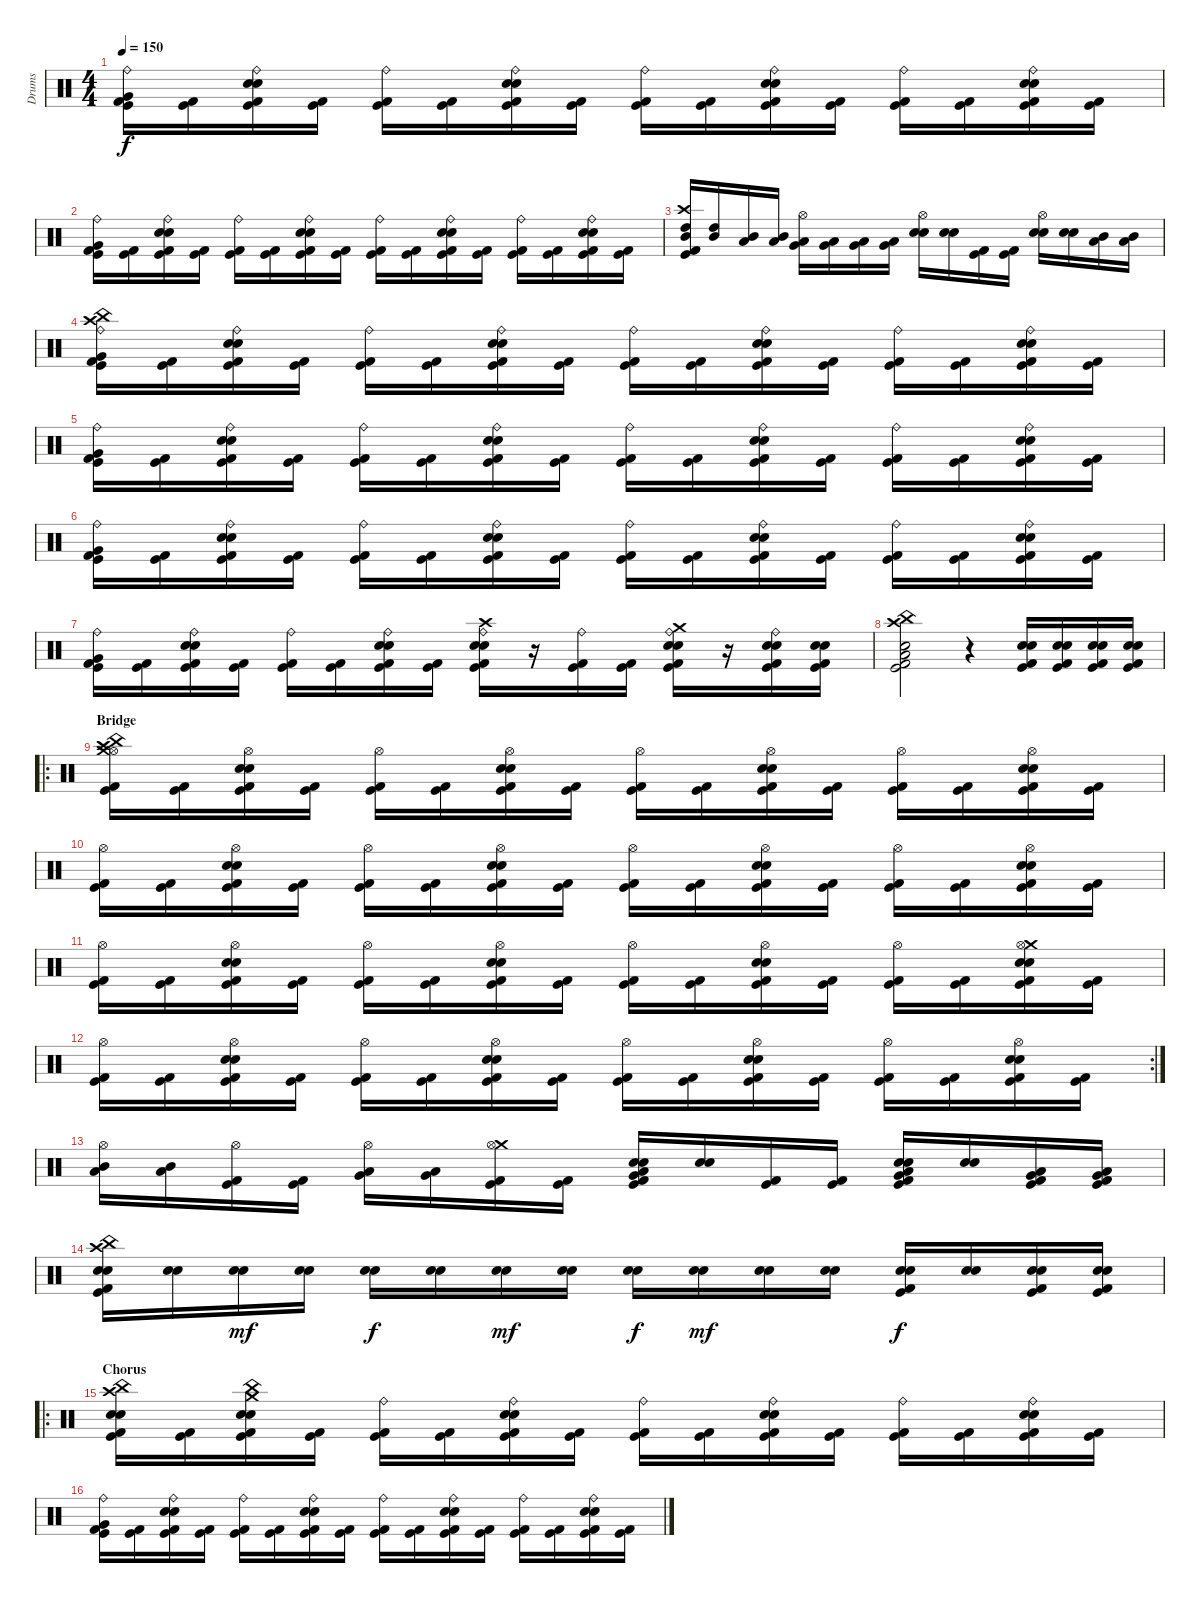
\track ("Drums" "Drums") {instrument percussion}
\staff {score}
\articulation defaults
\ts (4 4)
\tempo 150
\clef neutral
\ks c
("Ride (bell)" "Very Low Tom (hit)" "Kick (hit) 2" "Kick (hit)").16{dy f} ("Kick (hit) 2" "Kick (hit)").16 ("Ride (bell)" "Snare (hit) 2" "Electric Snare (hit)" "Kick (hit) 2" "Kick (hit)").16 ("Kick (hit) 2" "Kick (hit)").16 ("Ride (bell)" "Kick (hit) 2" "Kick (hit)").16 ("Kick (hit) 2" "Kick (hit)").16 ("Ride (bell)" "Snare (hit) 2" "Electric Snare (hit)" "Kick (hit)" "Kick (hit) 2").16 ("Kick (hit) 2" "Kick (hit)").16 ("Ride (bell)" "Kick (hit) 2" "Kick (hit)").16 ("Kick (hit) 2" "Kick (hit)").16 ("Ride (bell)" "Snare (hit) 2" "Electric Snare (hit)" "Kick (hit) 2" "Kick (hit)").16 ("Kick (hit) 2" "Kick (hit)").16 ("Ride (bell)" "Kick (hit) 2" "Kick (hit)").16 ("Kick (hit) 2" "Kick (hit)").16 ("Ride (bell)" "Snare (hit) 2" "Electric Snare (hit)" "Kick (hit)" "Kick (hit) 2").16 ("Kick (hit) 2" "Kick (hit)").16 |
("Ride (bell)" "Very Low Tom (hit)" "Kick (hit) 2" "Kick (hit)").16 ("Kick (hit) 2" "Kick (hit)").16 ("Ride (bell)" "Snare (hit) 2" "Electric Snare (hit)" "Kick (hit) 2" "Kick (hit)").16 ("Kick (hit) 2" "Kick (hit)").16 ("Ride (bell)" "Kick (hit) 2" "Kick (hit)").16 ("Kick (hit) 2" "Kick (hit)").16 ("Ride (bell)" "Snare (hit) 2" "Electric Snare (hit)" "Kick (hit)" "Kick (hit) 2").16 ("Kick (hit) 2" "Kick (hit)").16 ("Ride (bell)" "Kick (hit) 2" "Kick (hit)").16 ("Kick (hit) 2" "Kick (hit)").16 ("Ride (bell)" "Snare (hit) 2" "Electric Snare (hit)" "Kick (hit) 2" "Kick (hit)").16 ("Kick (hit) 2" "Kick (hit)").16 ("Ride (bell)" "Kick (hit) 2" "Kick (hit)").16 ("Kick (hit) 2" "Kick (hit)").16 ("Ride (bell)" "Snare (hit) 2" "Electric Snare (hit)" "Kick (hit)" "Kick (hit) 2").16 ("Kick (hit) 2" "Kick (hit)").16 |
("Crash high (hit)" "Mid Tom (hit)" "High Tom (hit)" "Kick (hit) 2" "Kick (hit)").16 ("Mid Tom (hit)" "High Tom (hit)").16 ("Low Tom (hit)" "Mid Tom (hit)").16 ("Low Tom (hit)" "Mid Tom (hit)").16 ("Hi-Hat (open)" "Very Low Tom (hit)" "Low Tom (hit)").16 ("Very Low Tom (hit)" "Low Tom (hit)").16 ("Very Low Tom (hit)" "Low Floor Tom (hit)").16 ("Very Low Tom (hit)" "Low Floor Tom (hit)").16 ("Hi-Hat (open)" "Snare (hit) 2" "Electric Snare (hit)").16 ("Snare (hit) 2" "Electric Snare (hit)").16 ("Kick (hit)" "Kick (hit) 2").16 ("Kick (hit)" "Kick (hit) 2").16 ("Hi-Hat (open)" "Snare (hit) 2" "Electric Snare (hit)").16 ("Snare (hit) 2" "Electric Snare (hit)").16 ("Mid Tom (hit)" "Low Tom (hit)").16 ("Mid Tom (hit)" "Low Tom (hit)").16 |
("Crash high (hit)" "Ride (bell)" "China (hit)" "Very Low Tom (hit)" "Kick (hit) 2" "Kick (hit)").16 ("Kick (hit) 2" "Kick (hit)").16 ("Ride (bell)" "Snare (hit) 2" "Electric Snare (hit)" "Kick (hit) 2" "Kick (hit)").16 ("Kick (hit) 2" "Kick (hit)").16 ("Ride (bell)" "Kick (hit) 2" "Kick (hit)").16 ("Kick (hit) 2" "Kick (hit)").16 ("Ride (bell)" "Snare (hit) 2" "Electric Snare (hit)" "Kick (hit)" "Kick (hit) 2").16 ("Kick (hit) 2" "Kick (hit)").16 ("Ride (bell)" "Kick (hit) 2" "Kick (hit)").16 ("Kick (hit) 2" "Kick (hit)").16 ("Ride (bell)" "Snare (hit) 2" "Electric Snare (hit)" "Kick (hit) 2" "Kick (hit)").16 ("Kick (hit) 2" "Kick (hit)").16 ("Ride (bell)" "Kick (hit) 2" "Kick (hit)").16 ("Kick (hit) 2" "Kick (hit)").16 ("Ride (bell)" "Snare (hit) 2" "Electric Snare (hit)" "Kick (hit)" "Kick (hit) 2").16 ("Kick (hit) 2" "Kick (hit)").16 |
("Ride (bell)" "Very Low Tom (hit)" "Kick (hit) 2" "Kick (hit)").16 ("Kick (hit) 2" "Kick (hit)").16 ("Ride (bell)" "Snare (hit) 2" "Electric Snare (hit)" "Kick (hit) 2" "Kick (hit)").16 ("Kick (hit) 2" "Kick (hit)").16 ("Ride (bell)" "Kick (hit) 2" "Kick (hit)").16 ("Kick (hit) 2" "Kick (hit)").16 ("Ride (bell)" "Snare (hit) 2" "Electric Snare (hit)" "Kick (hit)" "Kick (hit) 2").16 ("Kick (hit) 2" "Kick (hit)").16 ("Ride (bell)" "Kick (hit) 2" "Kick (hit)").16 ("Kick (hit) 2" "Kick (hit)").16 ("Ride (bell)" "Snare (hit) 2" "Electric Snare (hit)" "Kick (hit) 2" "Kick (hit)").16 ("Kick (hit) 2" "Kick (hit)").16 ("Ride (bell)" "Kick (hit) 2" "Kick (hit)").16 ("Kick (hit) 2" "Kick (hit)").16 ("Ride (bell)" "Snare (hit) 2" "Electric Snare (hit)" "Kick (hit)" "Kick (hit) 2").16 ("Kick (hit) 2" "Kick (hit)").16 |
("Ride (bell)" "Very Low Tom (hit)" "Kick (hit) 2" "Kick (hit)").16 ("Kick (hit) 2" "Kick (hit)").16 ("Ride (bell)" "Snare (hit) 2" "Electric Snare (hit)" "Kick (hit) 2" "Kick (hit)").16 ("Kick (hit) 2" "Kick (hit)").16 ("Ride (bell)" "Kick (hit) 2" "Kick (hit)").16 ("Kick (hit) 2" "Kick (hit)").16 ("Ride (bell)" "Snare (hit) 2" "Electric Snare (hit)" "Kick (hit)" "Kick (hit) 2").16 ("Kick (hit) 2" "Kick (hit)").16 ("Ride (bell)" "Kick (hit) 2" "Kick (hit)").16 ("Kick (hit) 2" "Kick (hit)").16 ("Ride (bell)" "Snare (hit) 2" "Electric Snare (hit)" "Kick (hit) 2" "Kick (hit)").16 ("Kick (hit) 2" "Kick (hit)").16 ("Ride (bell)" "Kick (hit) 2" "Kick (hit)").16 ("Kick (hit) 2" "Kick (hit)").16 ("Ride (bell)" "Snare (hit) 2" "Electric Snare (hit)" "Kick (hit)" "Kick (hit) 2").16 ("Kick (hit) 2" "Kick (hit)").16 |
("Ride (bell)" "Very Low Tom (hit)" "Kick (hit) 2" "Kick (hit)").16 ("Kick (hit) 2" "Kick (hit)").16 ("Ride (bell)" "Snare (hit) 2" "Electric Snare (hit)" "Kick (hit) 2" "Kick (hit)").16 ("Kick (hit) 2" "Kick (hit)").16 ("Ride (bell)" "Kick (hit) 2" "Kick (hit)").16 ("Kick (hit) 2" "Kick (hit)").16 ("Ride (bell)" "Snare (hit) 2" "Electric Snare (hit)" "Kick (hit)" "Kick (hit) 2").16 ("Kick (hit) 2" "Kick (hit)").16 ("Crash high (hit)" "Ride (bell)" "Electric Snare (hit)" "Snare (hit) 2" "Kick (hit) 2" "Kick (hit)").16 r.16 ("Ride (bell)" "Kick (hit) 2" "Kick (hit)").16 ("Kick (hit) 2" "Kick (hit)").16 ("Crash medium (hit)" "Ride (bell)" "Snare (hit) 2" "Electric Snare (hit)" "Kick (hit) 2" "Kick (hit)").16 r.16 ("Ride (bell)" "Snare (hit) 2" "Electric Snare (hit)" "Kick (hit)" "Kick (hit) 2").16 ("Snare (hit) 2" "Electric Snare (hit)" "Kick (hit) 2" "Kick (hit)").16 |
("Crash high (hit)" "China (hit)" "Electric Snare (hit)" "Low Tom (hit)" "Kick (hit)" "Kick (hit) 2").2 r.4 ("Electric Snare (hit)" "Snare (hit) 2" "Kick (hit) 2" "Kick (hit)").16 ("Electric Snare (hit)" "Snare (hit) 2" "Kick (hit) 2" "Kick (hit)").16 ("Electric Snare (hit)" "Snare (hit) 2" "Kick (hit) 2" "Kick (hit)").16 ("Electric Snare (hit)" "Snare (hit) 2" "Kick (hit) 2" "Kick (hit)").16 |
\ro
\section ("" "Bridge")
("China (hit)" "Hi-Hat (open)" "Crash high (hit)" "Crash medium (hit)" "Kick (hit) 2" "Kick (hit)").16 ("Kick (hit) 2" "Kick (hit)").16 ("Hi-Hat (open)" "Snare (hit) 2" "Electric Snare (hit)" "Kick (hit) 2" "Kick (hit)").16 ("Kick (hit) 2" "Kick (hit)").16 ("Hi-Hat (open)" "Kick (hit) 2" "Kick (hit)").16 ("Kick (hit) 2" "Kick (hit)").16 ("Hi-Hat (open)" "Snare (hit) 2" "Electric Snare (hit)" "Kick (hit)" "Kick (hit) 2").16 ("Kick (hit) 2" "Kick (hit)").16 ("Hi-Hat (open)" "Kick (hit) 2" "Kick (hit)").16 ("Kick (hit) 2" "Kick (hit)").16 ("Hi-Hat (open)" "Snare (hit) 2" "Electric Snare (hit)" "Kick (hit) 2" "Kick (hit)").16 ("Kick (hit) 2" "Kick (hit)").16 ("Hi-Hat (open)" "Kick (hit) 2" "Kick (hit)").16 ("Kick (hit) 2" "Kick (hit)").16 ("Hi-Hat (open)" "Snare (hit) 2" "Electric Snare (hit)" "Kick (hit)" "Kick (hit) 2").16 ("Kick (hit) 2" "Kick (hit)").16 |
("Hi-Hat (open)" "Kick (hit) 2" "Kick (hit)").16 ("Kick (hit) 2" "Kick (hit)").16 ("Hi-Hat (open)" "Snare (hit) 2" "Electric Snare (hit)" "Kick (hit) 2" "Kick (hit)").16 ("Kick (hit) 2" "Kick (hit)").16 ("Hi-Hat (open)" "Kick (hit) 2" "Kick (hit)").16 ("Kick (hit) 2" "Kick (hit)").16 ("Hi-Hat (open)" "Snare (hit) 2" "Electric Snare (hit)" "Kick (hit)" "Kick (hit) 2").16 ("Kick (hit) 2" "Kick (hit)").16 ("Hi-Hat (open)" "Kick (hit) 2" "Kick (hit)").16 ("Kick (hit) 2" "Kick (hit)").16 ("Hi-Hat (open)" "Snare (hit) 2" "Electric Snare (hit)" "Kick (hit) 2" "Kick (hit)").16 ("Kick (hit) 2" "Kick (hit)").16 ("Hi-Hat (open)" "Kick (hit) 2" "Kick (hit)").16 ("Kick (hit) 2" "Kick (hit)").16 ("Hi-Hat (open)" "Snare (hit) 2" "Electric Snare (hit)" "Kick (hit)" "Kick (hit) 2").16 ("Kick (hit) 2" "Kick (hit)").16 |
("Hi-Hat (open)" "Kick (hit) 2" "Kick (hit)").16 ("Kick (hit) 2" "Kick (hit)").16 ("Hi-Hat (open)" "Snare (hit) 2" "Electric Snare (hit)" "Kick (hit) 2" "Kick (hit)").16 ("Kick (hit) 2" "Kick (hit)").16 ("Hi-Hat (open)" "Kick (hit) 2" "Kick (hit)").16 ("Kick (hit) 2" "Kick (hit)").16 ("Hi-Hat (open)" "Snare (hit) 2" "Electric Snare (hit)" "Kick (hit)" "Kick (hit) 2").16 ("Kick (hit) 2" "Kick (hit)").16 ("Hi-Hat (open)" "Kick (hit) 2" "Kick (hit)").16 ("Kick (hit) 2" "Kick (hit)").16 ("Hi-Hat (open)" "Snare (hit) 2" "Electric Snare (hit)" "Kick (hit) 2" "Kick (hit)").16 ("Kick (hit) 2" "Kick (hit)").16 ("Hi-Hat (open)" "Kick (hit) 2" "Kick (hit)").16 ("Kick (hit) 2" "Kick (hit)").16 ("Crash medium (hit)" "Hi-Hat (open)" "Snare (hit) 2" "Electric Snare (hit)" "Kick (hit)" "Kick (hit) 2").16 ("Kick (hit) 2" "Kick (hit)").16 |
\rc 2
("Hi-Hat (open)" "Kick (hit) 2" "Kick (hit)").16 ("Kick (hit) 2" "Kick (hit)").16 ("Hi-Hat (open)" "Snare (hit) 2" "Electric Snare (hit)" "Kick (hit) 2" "Kick (hit)").16 ("Kick (hit) 2" "Kick (hit)").16 ("Hi-Hat (open)" "Kick (hit) 2" "Kick (hit)").16 ("Kick (hit) 2" "Kick (hit)").16 ("Hi-Hat (open)" "Snare (hit) 2" "Electric Snare (hit)" "Kick (hit)" "Kick (hit) 2").16 ("Kick (hit) 2" "Kick (hit)").16 ("Hi-Hat (open)" "Kick (hit) 2" "Kick (hit)").16 ("Kick (hit) 2" "Kick (hit)").16 ("Hi-Hat (open)" "Snare (hit) 2" "Electric Snare (hit)" "Kick (hit) 2" "Kick (hit)").16 ("Kick (hit) 2" "Kick (hit)").16 ("Hi-Hat (open)" "Kick (hit) 2" "Kick (hit)").16 ("Kick (hit) 2" "Kick (hit)").16 ("Hi-Hat (open)" "Snare (hit) 2" "Electric Snare (hit)" "Kick (hit)" "Kick (hit) 2").16 ("Kick (hit) 2" "Kick (hit)").16 |
("Hi-Hat (open)" "Low Tom (hit)" "Mid Tom (hit)").16 ("Low Tom (hit)" "Mid Tom (hit)").16 ("Hi-Hat (open)" "Kick (hit) 2" "Kick (hit)").16 ("Kick (hit) 2" "Kick (hit)").16 ("Hi-Hat (open)" "Very Low Tom (hit)" "Low Tom (hit)").16 ("Low Tom (hit)" "Very Low Tom (hit)").16 ("Crash medium (hit)" "Hi-Hat (open)" "Kick (hit) 2" "Kick (hit)").16 ("Kick (hit) 2" "Kick (hit)").16 ("Low Floor Tom (hit)" "Very Low Tom (hit)" "Electric Snare (hit)" "Snare (hit) 2" "Kick (hit) 2" "Kick (hit)").16 ("Electric Snare (hit)" "Snare (hit) 2").16 ("Kick (hit) 2" "Kick (hit)").16 ("Kick (hit) 2" "Kick (hit)").16 ("Low Tom (hit)" "Very Low Tom (hit)" "Snare (hit) 2" "Electric Snare (hit)" "Kick (hit)" "Kick (hit) 2").16 ("Electric Snare (hit)" "Snare (hit) 2").16 ("Very Low Tom (hit)" "Low Tom (hit)" "Kick (hit) 2" "Kick (hit)").16 ("Very Low Tom (hit)" "Low Tom (hit)" "Kick (hit) 2" "Kick (hit)").16 |
("China (hit)" "Crash high (hit)" "Electric Snare (hit)" "Snare (hit) 2" "Kick (hit) 2" "Kick (hit)").16 ("Electric Snare (hit)" "Snare (hit) 2").16 ("Electric Snare (hit)" "Snare (hit) 2").16{dy mf} ("Electric Snare (hit)" "Snare (hit) 2").16 ("Electric Snare (hit)" "Snare (hit) 2").16{dy f} ("Electric Snare (hit)" "Snare (hit) 2").16 ("Electric Snare (hit)" "Snare (hit) 2").16{dy mf} ("Electric Snare (hit)" "Snare (hit) 2").16 ("Electric Snare (hit)" "Snare (hit) 2").16{dy f} ("Electric Snare (hit)" "Snare (hit) 2").16{dy mf} ("Electric Snare (hit)" "Snare (hit) 2").16 ("Electric Snare (hit)" "Snare (hit) 2").16 ("Electric Snare (hit)" "Snare (hit) 2" "Kick (hit)" "Kick (hit) 2").16{dy f} ("Electric Snare (hit)" "Snare (hit) 2").16 ("Electric Snare (hit)" "Snare (hit) 2" "Kick (hit)" "Kick (hit) 2").16 ("Electric Snare (hit)" "Snare (hit) 2" "Kick (hit)" "Kick (hit) 2").16 |
\ro
\section ("" "Chorus")
("Crash high (hit)" "China (hit)" "Electric Snare (hit)" "Snare (hit) 2" "Kick (hit) 2" "Kick (hit)").16 ("Kick (hit) 2" "Kick (hit)").16 ("Crash medium (hit)" "China (hit)" "Snare (hit) 2" "Electric Snare (hit)" "Kick (hit) 2" "Kick (hit)").16 ("Kick (hit) 2" "Kick (hit)").16 ("Ride (bell)" "Kick (hit) 2" "Kick (hit)").16 ("Kick (hit) 2" "Kick (hit)").16 ("Ride (bell)" "Snare (hit) 2" "Electric Snare (hit)" "Kick (hit)" "Kick (hit) 2").16 ("Kick (hit) 2" "Kick (hit)").16 ("Ride (bell)" "Kick (hit) 2" "Kick (hit)").16 ("Kick (hit) 2" "Kick (hit)").16 ("Ride (bell)" "Snare (hit) 2" "Electric Snare (hit)" "Kick (hit) 2" "Kick (hit)").16 ("Kick (hit) 2" "Kick (hit)").16 ("Ride (bell)" "Kick (hit) 2" "Kick (hit)").16 ("Kick (hit) 2" "Kick (hit)").16 ("Ride (bell)" "Snare (hit) 2" "Electric Snare (hit)" "Kick (hit)" "Kick (hit) 2").16 ("Kick (hit) 2" "Kick (hit)").16 |
("Ride (bell)" "Very Low Tom (hit)" "Kick (hit) 2" "Kick (hit)").16 ("Kick (hit) 2" "Kick (hit)").16 ("Ride (bell)" "Snare (hit) 2" "Electric Snare (hit)" "Kick (hit) 2" "Kick (hit)").16 ("Kick (hit) 2" "Kick (hit)").16 ("Ride (bell)" "Kick (hit) 2" "Kick (hit)").16 ("Kick (hit) 2" "Kick (hit)").16 ("Ride (bell)" "Snare (hit) 2" "Electric Snare (hit)" "Kick (hit)" "Kick (hit) 2").16 ("Kick (hit) 2" "Kick (hit)").16 ("Ride (bell)" "Kick (hit) 2" "Kick (hit)").16 ("Kick (hit) 2" "Kick (hit)").16 ("Ride (bell)" "Snare (hit) 2" "Electric Snare (hit)" "Kick (hit) 2" "Kick (hit)").16 ("Kick (hit) 2" "Kick (hit)").16 ("Ride (bell)" "Kick (hit) 2" "Kick (hit)").16 ("Kick (hit) 2" "Kick (hit)").16 ("Ride (bell)" "Snare (hit) 2" "Electric Snare (hit)" "Kick (hit)" "Kick (hit) 2").16 ("Kick (hit) 2" "Kick (hit)").16
